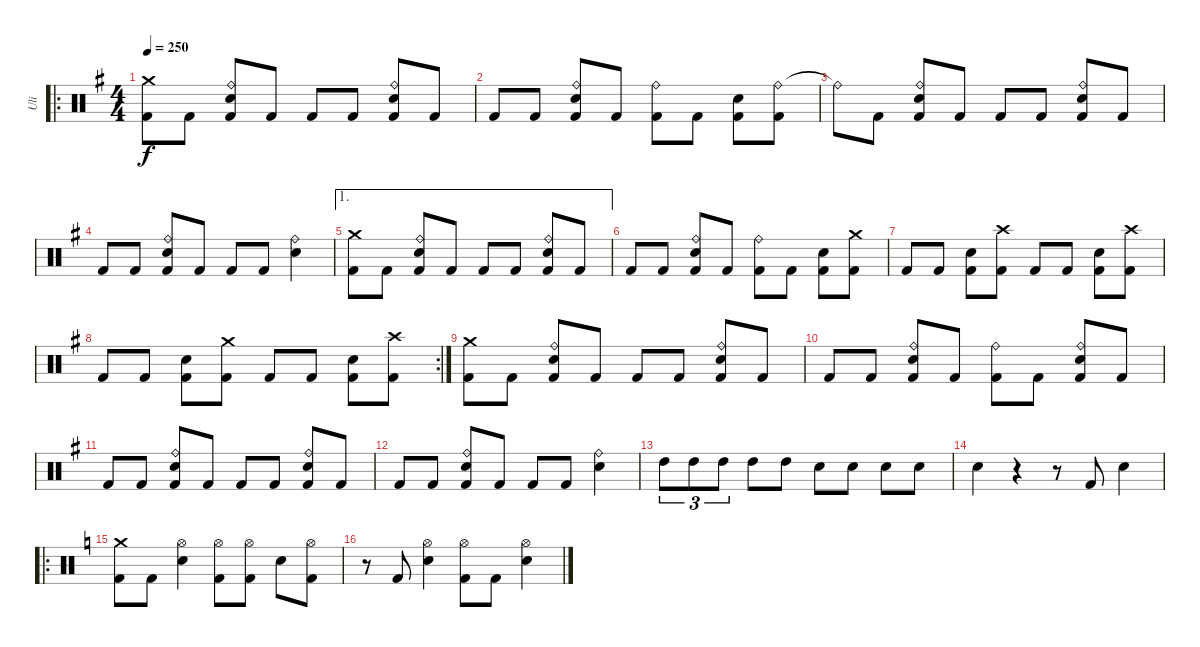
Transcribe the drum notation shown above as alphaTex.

\track ("Uli" "Uli") {instrument percussion}
\staff {score}
\articulation defaults
\ro
\ts (4 4)
\tempo 250
\clef neutral
\ks g
("Crash medium (hit)" "Kick (hit) 2").8{dy f} "Kick (hit) 2".8 ("Ride (bell)" "Snare (hit) 2" "Kick (hit) 2").8 "Kick (hit) 2".8 "Kick (hit) 2".8 "Kick (hit) 2".8 ("Ride (bell)" "Snare (hit) 2" "Kick (hit) 2").8 "Kick (hit) 2".8 |
"Kick (hit) 2".8 "Kick (hit) 2".8 ("Ride (bell)" "Snare (hit) 2" "Kick (hit) 2").8 "Kick (hit) 2".8 ("Ride (bell)" "Kick (hit) 2").8 "Kick (hit) 2".8 ("Snare (hit) 2" "Kick (hit) 2").8 ("Ride (bell)" "Kick (hit) 2").8 |
"Ride (bell)"{t}.8 "Kick (hit) 2".8 ("Ride (bell)" "Snare (hit) 2" "Kick (hit) 2").8 "Kick (hit) 2".8 "Kick (hit) 2".8 "Kick (hit) 2".8 ("Ride (bell)" "Snare (hit) 2" "Kick (hit) 2").8 "Kick (hit) 2".8 |
"Kick (hit) 2".8 "Kick (hit) 2".8 ("Ride (bell)" "Snare (hit) 2" "Kick (hit) 2").8 "Kick (hit) 2".8 "Kick (hit) 2".8 "Kick (hit) 2".8 ("Ride (bell)" "Snare (hit) 2").4 |
\ae 1
("Crash medium (hit)" "Kick (hit) 2").8 "Kick (hit) 2".8 ("Ride (bell)" "Snare (hit) 2" "Kick (hit) 2").8 "Kick (hit) 2".8 "Kick (hit) 2".8 "Kick (hit) 2".8 ("Ride (bell)" "Snare (hit) 2" "Kick (hit) 2").8 "Kick (hit) 2".8 |
"Kick (hit) 2".8 "Kick (hit) 2".8 ("Ride (bell)" "Snare (hit) 2" "Kick (hit) 2").8 "Kick (hit) 2".8 ("Ride (bell)" "Kick (hit) 2").8 "Kick (hit) 2".8 ("Snare (hit) 2" "Kick (hit) 2").8 ("Crash medium (hit)" "Kick (hit) 2").8 |
"Kick (hit) 2".8 "Kick (hit) 2".8 ("Snare (hit) 2" "Kick (hit) 2").8 ("Crash high (hit)" "Kick (hit) 2").8 "Kick (hit) 2".8 "Kick (hit) 2".8 ("Snare (hit) 2" "Kick (hit) 2").8 ("Crash high (hit)" "Kick (hit) 2").8 |
\rc 2 "Kick (hit) 2".8 "Kick (hit) 2".8
("Snare (hit) 2" "Kick (hit) 2").8 ("Crash medium (hit)" "Kick (hit) 2").8 "Kick (hit) 2".8 "Kick (hit) 2".8 ("Snare (hit) 2" "Kick (hit) 2").8 ("Crash high (hit)" "Kick (hit) 2").8 |
("Crash medium (hit)" "Kick (hit) 2").8 "Kick (hit) 2".8 ("Ride (bell)" "Snare (hit) 2" "Kick (hit) 2").8 "Kick (hit) 2".8 "Kick (hit) 2".8 "Kick (hit) 2".8 ("Ride (bell)" "Snare (hit) 2" "Kick (hit) 2").8 "Kick (hit) 2".8 |
"Kick (hit) 2".8 "Kick (hit) 2".8 ("Ride (bell)" "Snare (hit) 2" "Kick (hit) 2").8 "Kick (hit) 2".8 ("Ride (bell)" "Kick (hit) 2").8 "Kick (hit) 2".8 ("Ride (bell)" "Snare (hit) 2" "Kick (hit) 2").8 "Kick (hit) 2".8 |
"Kick (hit) 2".8 "Kick (hit) 2".8 ("Ride (bell)" "Snare (hit) 2" "Kick (hit) 2").8 "Kick (hit) 2".8 "Kick (hit) 2".8 "Kick (hit) 2".8 ("Ride (bell)" "Snare (hit) 2" "Kick (hit) 2").8 "Kick (hit) 2".8 |
"Kick (hit) 2".8 "Kick (hit) 2".8 ("Ride (bell)" "Snare (hit) 2" "Kick (hit) 2").8 "Kick (hit) 2".8 "Kick (hit) 2".8 "Kick (hit) 2".8 ("Ride (bell)" "Snare (hit) 2").4 |
"High Tom (hit)".8{tu (3 2)} "High Tom (hit)".8{tu (3 2)} "High Tom (hit)".8{tu (3 2)} "High Tom (hit)".8 "High Tom (hit)".8 "Snare (hit) 2".8 "Snare (hit) 2".8 "Snare (hit) 2".8 "Snare (hit) 2".8 |
"Snare (hit) 2".4 r.4 r.8 "Kick (hit) 2".8 "Snare (hit) 2".4 |
\ro
\ks c
("Crash medium (hit)" "Kick (hit) 2").8 "Kick (hit) 2".8 ("Hi-Hat (open)" "Snare (hit) 2").4 ("Hi-Hat (open)" "Kick (hit) 2").8 ("Hi-Hat (open)" "Kick (hit) 2").8 "Snare (hit) 2".8 ("Hi-Hat (open)" "Kick (hit) 2").8 |
r.8 "Kick (hit) 2".8 ("Hi-Hat (open)" "Snare (hit) 2").4 ("Hi-Hat (open)" "Kick (hit) 2").8 "Kick (hit) 2".8 ("Hi-Hat (open)" "Snare (hit) 2").4
